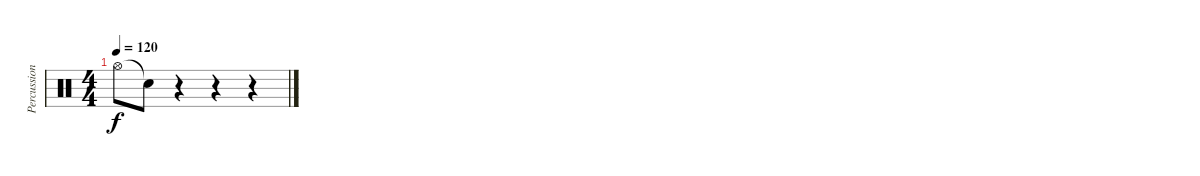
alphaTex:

\track ("Percussion" "Percussion") {instrument percussion}
\staff {score}
\articulation defaults
\ts (4 4)
\tempo 120
\clef neutral
\ks c "Hi-Hat (open)".8{dy f} "Snare (hit)"{t}.8
r.4 r.4 r.4
